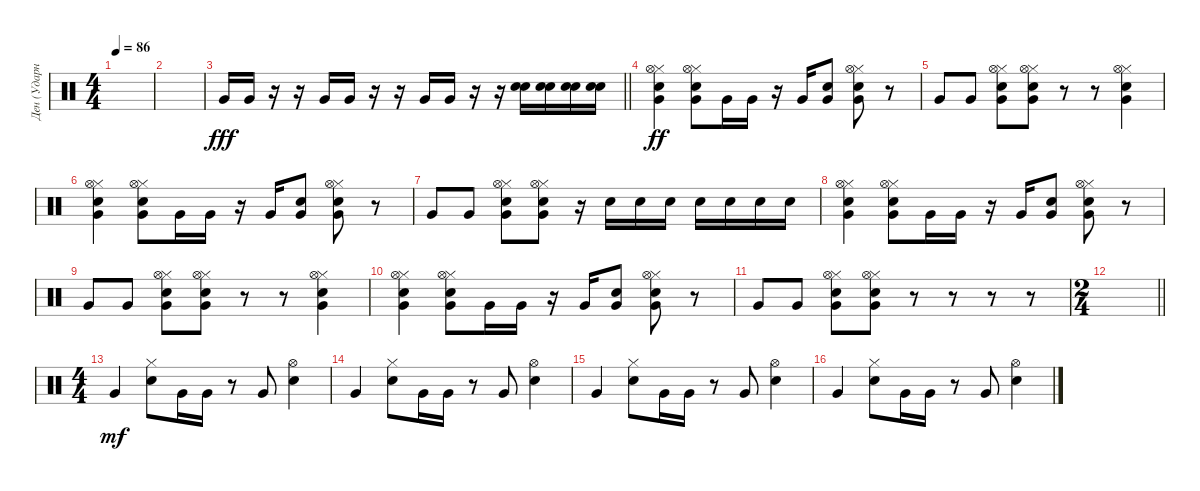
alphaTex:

\track ("Ден (Ударные)" "Ден (Ударн") {instrument percussion}
\staff {score}
\articulation defaults
\ts (4 4)
\tempo 86
\clef neutral
\ks c
|
|
\barLineRight lightlight "Very Low Tom (hit)".16{dy fff} "Very Low Tom (hit)".16
r.16 r.16 "Very Low Tom (hit)".16 "Very Low Tom (hit)".16 r.16 r.16 "Very Low Tom (hit)".16 "Very Low Tom (hit)".16 r.16 r.16 ("Electric Snare (hit)" "Electric Snare (hit)").16 ("Electric Snare (hit)" "Electric Snare (hit)").16 ("Electric Snare (hit)" "Electric Snare (hit)").16 ("Electric Snare (hit)" "Electric Snare (hit)").16 |
("Very Low Tom (hit)" "Electric Snare (hit)" "Hi-Hat (closed)" "Hi-Hat (open)").4{dy ff} ("Very Low Tom (hit)" "Electric Snare (hit)" "Hi-Hat (closed)" "Hi-Hat (open)").8 "Very Low Tom (hit)".16 "Very Low Tom (hit)".16 r.16 "Very Low Tom (hit)".16 ("Electric Snare (hit)" "Very Low Tom (hit)").8 ("Very Low Tom (hit)" "Electric Snare (hit)" "Hi-Hat (closed)" "Hi-Hat (open)").8 r.8 |
"Very Low Tom (hit)".8 "Very Low Tom (hit)".8 ("Very Low Tom (hit)" "Electric Snare (hit)" "Hi-Hat (closed)" "Hi-Hat (open)").8 ("Very Low Tom (hit)" "Electric Snare (hit)" "Hi-Hat (closed)" "Hi-Hat (open)").8 r.8 r.8 ("Hi-Hat (closed)" "Electric Snare (hit)" "Very Low Tom (hit)" "Hi-Hat (open)").4 |
("Very Low Tom (hit)" "Electric Snare (hit)" "Hi-Hat (closed)" "Hi-Hat (open)").4 ("Very Low Tom (hit)" "Electric Snare (hit)" "Hi-Hat (closed)" "Hi-Hat (open)").8 "Very Low Tom (hit)".16 "Very Low Tom (hit)".16 r.16 "Very Low Tom (hit)".16 ("Electric Snare (hit)" "Very Low Tom (hit)").8 ("Very Low Tom (hit)" "Electric Snare (hit)" "Hi-Hat (closed)" "Hi-Hat (open)").8 r.8 |
"Very Low Tom (hit)".8 "Very Low Tom (hit)".8 ("Very Low Tom (hit)" "Electric Snare (hit)" "Hi-Hat (closed)" "Hi-Hat (open)").8 ("Very Low Tom (hit)" "Electric Snare (hit)" "Hi-Hat (closed)" "Hi-Hat (open)").8 r.16 "Electric Snare (hit)".16 "Electric Snare (hit)".16 "Electric Snare (hit)".16 "Electric Snare (hit)".16 "Electric Snare (hit)".16 "Electric Snare (hit)".16 "Electric Snare (hit)".16 |
("Very Low Tom (hit)" "Electric Snare (hit)" "Hi-Hat (closed)" "Hi-Hat (open)").4 ("Very Low Tom (hit)" "Electric Snare (hit)" "Hi-Hat (closed)" "Hi-Hat (open)").8 "Very Low Tom (hit)".16 "Very Low Tom (hit)".16 r.16 "Very Low Tom (hit)".16 ("Electric Snare (hit)" "Very Low Tom (hit)").8 ("Very Low Tom (hit)" "Electric Snare (hit)" "Hi-Hat (closed)" "Hi-Hat (open)").8 r.8 |
"Very Low Tom (hit)".8 "Very Low Tom (hit)".8 ("Very Low Tom (hit)" "Electric Snare (hit)" "Hi-Hat (closed)" "Hi-Hat (open)").8 ("Very Low Tom (hit)" "Electric Snare (hit)" "Hi-Hat (closed)" "Hi-Hat (open)").8 r.8 r.8 ("Hi-Hat (closed)" "Electric Snare (hit)" "Very Low Tom (hit)" "Hi-Hat (open)").4 |
("Very Low Tom (hit)" "Electric Snare (hit)" "Hi-Hat (closed)" "Hi-Hat (open)").4 ("Very Low Tom (hit)" "Electric Snare (hit)" "Hi-Hat (closed)" "Hi-Hat (open)").8 "Very Low Tom (hit)".16 "Very Low Tom (hit)".16 r.16 "Very Low Tom (hit)".16 ("Electric Snare (hit)" "Very Low Tom (hit)").8 ("Very Low Tom (hit)" "Electric Snare (hit)" "Hi-Hat (closed)" "Hi-Hat (open)").8 r.8 |
"Very Low Tom (hit)".8 "Very Low Tom (hit)".8 ("Very Low Tom (hit)" "Electric Snare (hit)" "Hi-Hat (closed)" "Hi-Hat (open)").8 ("Very Low Tom (hit)" "Electric Snare (hit)" "Hi-Hat (closed)" "Hi-Hat (open)").8 r.8 r.8 r.8 r.8 |
\ts (2 4)
\barLineRight lightlight
|
\ts (4 4)
"Very Low Tom (hit)".4{dy mf} ("Hi-Hat (closed)" "Electric Snare (hit)").8 "Very Low Tom (hit)".16 "Very Low Tom (hit)".16 r.8 "Very Low Tom (hit)".8 ("Hi-Hat (open)" "Electric Snare (hit)").4 |
"Very Low Tom (hit)".4 ("Hi-Hat (closed)" "Electric Snare (hit)").8 "Very Low Tom (hit)".16 "Very Low Tom (hit)".16 r.8 "Very Low Tom (hit)".8 ("Hi-Hat (open)" "Electric Snare (hit)").4 |
"Very Low Tom (hit)".4 ("Hi-Hat (closed)" "Electric Snare (hit)").8 "Very Low Tom (hit)".16 "Very Low Tom (hit)".16 r.8 "Very Low Tom (hit)".8 ("Hi-Hat (open)" "Electric Snare (hit)").4 |
"Very Low Tom (hit)".4 ("Hi-Hat (closed)" "Electric Snare (hit)").8 "Very Low Tom (hit)".16 "Very Low Tom (hit)".16 r.8 "Very Low Tom (hit)".8 ("Hi-Hat (open)" "Electric Snare (hit)").4
